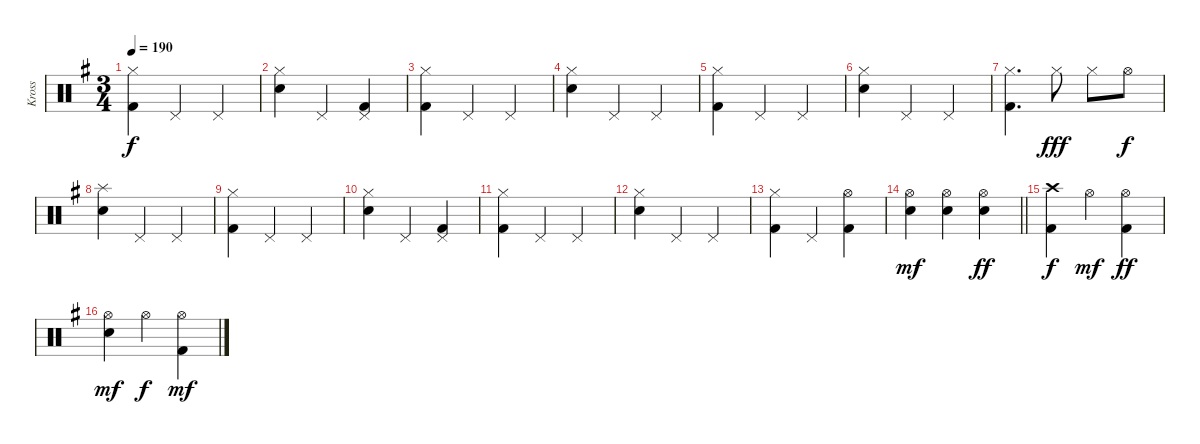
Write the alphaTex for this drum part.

\track ("Kross" "Kross") {instrument percussion}
\staff {score}
\articulation defaults
\ts (3 4)
\tempo 190
\clef neutral
\ks g
("Hi-Hat (closed)" "Kick (hit) 2").4{dy f} "Pedal Hi-Hat (hit)".4 "Pedal Hi-Hat (hit)".4 |
("Hi-Hat (closed)" "Snare (hit) 2").4 "Pedal Hi-Hat (hit)".4 ("Pedal Hi-Hat (hit)" "Kick (hit) 2").4 |
("Hi-Hat (closed)" "Kick (hit) 2").4 "Pedal Hi-Hat (hit)".4 "Pedal Hi-Hat (hit)".4 |
("Hi-Hat (closed)" "Snare (hit) 2").4 "Pedal Hi-Hat (hit)".4 "Pedal Hi-Hat (hit)".4 |
("Hi-Hat (closed)" "Kick (hit) 2").4 "Pedal Hi-Hat (hit)".4 "Pedal Hi-Hat (hit)".4 |
("Hi-Hat (closed)" "Snare (hit) 2").4 "Pedal Hi-Hat (hit)".4 "Pedal Hi-Hat (hit)".4 |
("Hi-Hat (closed)" "Kick (hit) 2").4{d} "Hi-Hat (closed)".8{dy fff} "Hi-Hat (closed)".8 "Hi-Hat (open)".8{dy f} |
("Splash (hit)" "Snare (hit) 2").4 "Pedal Hi-Hat (hit)".4 "Pedal Hi-Hat (hit)".4 |
("Hi-Hat (closed)" "Kick (hit) 2").4 "Pedal Hi-Hat (hit)".4 "Pedal Hi-Hat (hit)".4 |
("Hi-Hat (closed)" "Snare (hit) 2").4 "Pedal Hi-Hat (hit)".4 ("Pedal Hi-Hat (hit)" "Kick (hit) 2").4 |
("Hi-Hat (closed)" "Kick (hit) 2").4 "Pedal Hi-Hat (hit)".4 "Pedal Hi-Hat (hit)".4 |
("Hi-Hat (closed)" "Snare (hit) 2").4 "Pedal Hi-Hat (hit)".4 "Pedal Hi-Hat (hit)".4 |
("Hi-Hat (closed)" "Kick (hit) 2").4 "Pedal Hi-Hat (hit)".4 ("Hi-Hat (open)" "Kick (hit) 2").4 |
\barLineRight lightlight
("Hi-Hat (open)" "Snare (hit) 2").4{dy mf} ("Hi-Hat (open)" "Snare (hit) 2").4 ("Hi-Hat (open)" "Snare (hit) 2").4{dy ff} |
("Crash high (hit)" "Kick (hit) 2").4{dy f} "Hi-Hat (open)".4{dy mf} ("Hi-Hat (open)" "Kick (hit) 2").4{dy ff} |
("Hi-Hat (open)" "Snare (hit) 2").4{dy mf} "Hi-Hat (open)".4{dy f} ("Hi-Hat (open)" "Kick (hit) 2").4{dy mf}
